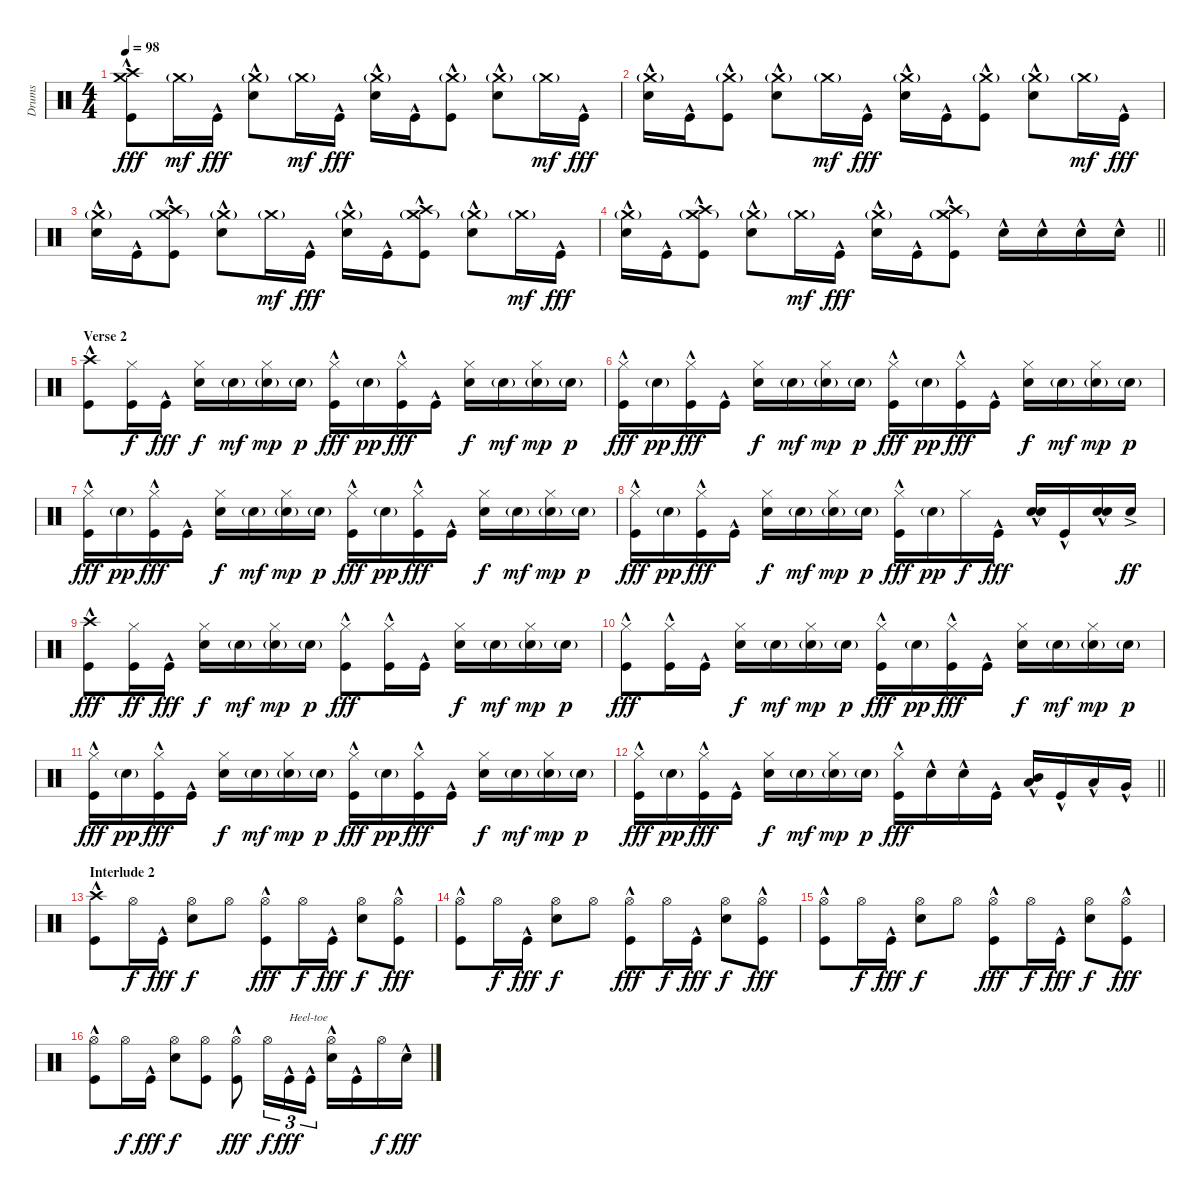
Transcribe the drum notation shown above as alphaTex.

\track ("Drums" "Drums") {instrument percussion}
\staff {score}
\articulation defaults
\ts (4 4)
\tempo 98
\clef neutral
\ks c
("Crash medium (hit)" "Crash high (hit)" "Kick (hit)"{hac}).8{dy fff} "Crash medium (hit)"{g}.16{dy mf} "Kick (hit)"{hac}.16{dy fff} ("Crash medium (hit)"{g} "Snare (hit) 2"{hac}).8 "Crash medium (hit)"{g}.16{dy mf} "Kick (hit)"{hac}.16{dy fff} ("Crash medium (hit)"{g} "Snare (hit) 2"{hac}).16 "Kick (hit)"{hac}.16 ("Crash medium (hit)"{g} "Kick (hit)"{hac}).8 ("Crash medium (hit)"{g} "Snare (hit) 2"{hac}).8 "Crash medium (hit)"{g}.16{dy mf} "Kick (hit)"{hac}.16{dy fff} |
("Crash medium (hit)"{g} "Snare (hit) 2"{hac}).16 "Kick (hit)"{hac}.16 ("Crash medium (hit)"{g} "Kick (hit)"{hac}).8 ("Crash medium (hit)"{g} "Snare (hit) 2"{hac}).8 "Crash medium (hit)"{g}.16{dy mf} "Kick (hit)"{hac}.16{dy fff} ("Crash medium (hit)"{g} "Snare (hit) 2"{hac}).16 "Kick (hit)"{hac}.16 ("Crash medium (hit)"{g} "Kick (hit)"{hac}).8 ("Crash medium (hit)"{g} "Snare (hit) 2"{hac}).8 "Crash medium (hit)"{g}.16{dy mf} "Kick (hit)"{hac}.16{dy fff} |
("Crash medium (hit)"{g} "Snare (hit) 2"{hac}).16 "Kick (hit)"{hac}.16 ("Crash medium (hit)"{g} "Crash high (hit)" "Kick (hit)"{hac}).8 ("Crash medium (hit)"{g} "Snare (hit) 2"{hac}).8 "Crash medium (hit)"{g}.16{dy mf} "Kick (hit)"{hac}.16{dy fff} ("Crash medium (hit)"{g} "Snare (hit) 2"{hac}).16 "Kick (hit)"{hac}.16 ("Crash medium (hit)"{g} "Crash high (hit)" "Kick (hit)"{hac}).8 ("Crash medium (hit)"{g} "Snare (hit) 2"{hac}).8 "Crash medium (hit)"{g}.16{dy mf} "Kick (hit)"{hac}.16{dy fff} |
\barLineRight lightlight
("Crash medium (hit)"{g} "Snare (hit) 2"{hac}).16 "Kick (hit)"{hac}.16 ("Crash medium (hit)"{g} "Crash high (hit)" "Kick (hit)"{hac}).8 ("Crash medium (hit)"{g} "Snare (hit) 2"{hac}).8 "Crash medium (hit)"{g}.16{dy mf} "Kick (hit)"{hac}.16{dy fff} ("Crash medium (hit)"{g} "Snare (hit) 2"{hac}).16 "Kick (hit)"{hac}.16 ("Crash medium (hit)"{g} "Crash high (hit)" "Kick (hit)"{hac}).8 "Snare (hit) 2"{hac}.16 "Snare (hit) 2"{hac}.16 "Snare (hit) 2"{hac}.16 "Snare (hit) 2"{hac}.16 |
\section ("" "Verse 2")
("Crash high (hit)" "Kick (hit)"{hac}).8 ("Hi-Hat (closed)" "Kick (hit)").16{dy f} "Kick (hit)"{hac}.16{dy fff} ("Hi-Hat (closed)" "Snare (hit) 2").16{dy f} "Snare (hit) 2"{g}.16{dy mf} ("Hi-Hat (closed)" "Snare (hit) 2"{g}).16{dy mp} "Snare (hit) 2"{g}.16{dy p} ("Hi-Hat (closed)" "Kick (hit)"{hac}).16{dy fff} "Snare (hit) 2"{g}.16{dy pp} ("Hi-Hat (closed)" "Kick (hit)"{hac}).16{dy fff} "Kick (hit)"{hac}.16 ("Hi-Hat (closed)" "Snare (hit) 2").16{dy f} "Snare (hit) 2"{g}.16{dy mf} ("Hi-Hat (closed)" "Snare (hit) 2"{g}).16{dy mp} "Snare (hit) 2"{g}.16{dy p} |
("Hi-Hat (closed)" "Kick (hit)"{hac}).16{dy fff} "Snare (hit) 2"{g}.16{dy pp} ("Hi-Hat (closed)" "Kick (hit)"{hac}).16{dy fff} "Kick (hit)"{hac}.16 ("Hi-Hat (closed)" "Snare (hit) 2").16{dy f} "Snare (hit) 2"{g}.16{dy mf} ("Hi-Hat (closed)" "Snare (hit) 2"{g}).16{dy mp} "Snare (hit) 2"{g}.16{dy p} ("Hi-Hat (closed)" "Kick (hit)"{hac}).16{dy fff} "Snare (hit) 2"{g}.16{dy pp} ("Hi-Hat (closed)" "Kick (hit)"{hac}).16{dy fff} "Kick (hit)"{hac}.16 ("Hi-Hat (closed)" "Snare (hit) 2").16{dy f} "Snare (hit) 2"{g}.16{dy mf} ("Hi-Hat (closed)" "Snare (hit) 2"{g}).16{dy mp} "Snare (hit) 2"{g}.16{dy p} |
("Hi-Hat (closed)" "Kick (hit)"{hac}).16{dy fff} "Snare (hit) 2"{g}.16{dy pp} ("Hi-Hat (closed)" "Kick (hit)"{hac}).16{dy fff} "Kick (hit)"{hac}.16 ("Hi-Hat (closed)" "Snare (hit) 2").16{dy f} "Snare (hit) 2"{g}.16{dy mf} ("Hi-Hat (closed)" "Snare (hit) 2"{g}).16{dy mp} "Snare (hit) 2"{g}.16{dy p} ("Hi-Hat (closed)" "Kick (hit)"{hac}).16{dy fff} "Snare (hit) 2"{g}.16{dy pp} ("Hi-Hat (closed)" "Kick (hit)"{hac}).16{dy fff} "Kick (hit)"{hac}.16 ("Hi-Hat (closed)" "Snare (hit) 2").16{dy f} "Snare (hit) 2"{g}.16{dy mf} ("Hi-Hat (closed)" "Snare (hit) 2"{g}).16{dy mp} "Snare (hit) 2"{g}.16{dy p} |
("Hi-Hat (closed)" "Kick (hit)"{hac}).16{dy fff} "Snare (hit) 2"{g}.16{dy pp} ("Hi-Hat (closed)" "Kick (hit)"{hac}).16{dy fff} "Kick (hit)"{hac}.16 ("Hi-Hat (closed)" "Snare (hit) 2").16{dy f} "Snare (hit) 2"{g}.16{dy mf} ("Hi-Hat (closed)" "Snare (hit) 2"{g}).16{dy mp} "Snare (hit) 2"{g}.16{dy p} ("Hi-Hat (closed)" "Kick (hit)"{hac}).16{dy fff} "Snare (hit) 2"{g}.16{dy pp} "Hi-Hat (closed)".16{dy f} "Kick (hit)"{hac}.16{dy fff} ("Snare (hit) 2"{hac} "Snare (hit) 2"{hac}).16{bd 60} "Kick (hit)"{hac}.16 ("Snare (hit) 2"{hac} "Snare (hit) 2"{hac}).16{bu 240} "Snare (hit) 2"{ac}.16{dy ff} |
("Crash high (hit)" "Kick (hit)"{hac}).8{dy fff} ("Hi-Hat (closed)" "Kick (hit)").16{dy ff} "Kick (hit)"{hac}.16{dy fff} ("Hi-Hat (closed)" "Snare (hit) 2").16{dy f} "Snare (hit) 2"{g}.16{dy mf} ("Hi-Hat (closed)" "Snare (hit) 2"{g}).16{dy mp} "Snare (hit) 2"{g}.16{dy p} ("Hi-Hat (closed)" "Kick (hit)"{hac}).8{dy fff} ("Hi-Hat (closed)" "Kick (hit)"{hac}).16 "Kick (hit)"{hac}.16 ("Hi-Hat (closed)" "Snare (hit) 2").16{dy f} "Snare (hit) 2"{g}.16{dy mf} ("Hi-Hat (closed)" "Snare (hit) 2"{g}).16{dy mp} "Snare (hit) 2"{g}.16{dy p} |
("Hi-Hat (closed)" "Kick (hit)"{hac}).8{dy fff} ("Hi-Hat (closed)" "Kick (hit)"{hac}).16 "Kick (hit)"{hac}.16 ("Hi-Hat (closed)" "Snare (hit) 2").16{dy f} "Snare (hit) 2"{g}.16{dy mf} ("Hi-Hat (closed)" "Snare (hit) 2"{g}).16{dy mp} "Snare (hit) 2"{g}.16{dy p} ("Hi-Hat (closed)" "Kick (hit)"{hac}).16{dy fff} "Snare (hit) 2"{g}.16{dy pp} ("Hi-Hat (closed)" "Kick (hit)"{hac}).16{dy fff} "Kick (hit)"{hac}.16 ("Hi-Hat (closed)" "Snare (hit) 2").16{dy f} "Snare (hit) 2"{g}.16{dy mf} ("Hi-Hat (closed)" "Snare (hit) 2"{g}).16{dy mp} "Snare (hit) 2"{g}.16{dy p} |
("Hi-Hat (closed)" "Kick (hit)"{hac}).16{dy fff} "Snare (hit) 2"{g}.16{dy pp} ("Hi-Hat (closed)" "Kick (hit)"{hac}).16{dy fff} "Kick (hit)"{hac}.16 ("Hi-Hat (closed)" "Snare (hit) 2").16{dy f} "Snare (hit) 2"{g}.16{dy mf} ("Hi-Hat (closed)" "Snare (hit) 2"{g}).16{dy mp} "Snare (hit) 2"{g}.16{dy p} ("Hi-Hat (closed)" "Kick (hit)"{hac}).16{dy fff} "Snare (hit) 2"{g}.16{dy pp} ("Hi-Hat (closed)" "Kick (hit)"{hac}).16{dy fff} "Kick (hit)"{hac}.16 ("Hi-Hat (closed)" "Snare (hit) 2").16{dy f} "Snare (hit) 2"{g}.16{dy mf} ("Hi-Hat (closed)" "Snare (hit) 2"{g}).16{dy mp} "Snare (hit) 2"{g}.16{dy p} |
\barLineRight lightlight
("Hi-Hat (closed)" "Kick (hit)"{hac}).16{dy fff} "Snare (hit) 2"{g}.16{dy pp} ("Hi-Hat (closed)" "Kick (hit)"{hac}).16{dy fff} "Kick (hit)"{hac}.16 ("Hi-Hat (closed)" "Snare (hit) 2").16{dy f} "Snare (hit) 2"{g}.16{dy mf} ("Hi-Hat (closed)" "Snare (hit) 2"{g}).16{dy mp} "Snare (hit) 2"{g}.16{dy p} ("Hi-Hat (closed)" "Kick (hit)"{hac}).16{dy fff} "Snare (hit) 2"{hac}.16 "Snare (hit) 2"{hac}.16 "Kick (hit)"{hac}.16 ("Mid Tom (hit)"{hac} "Low Tom (hit)"{hac}).16{bd 240} "Kick (hit)"{hac}.16 "Low Tom (hit)"{hac}.16 "Very Low Tom (hit)"{hac}.16 |
\section ("" "Interlude 2")
("Crash high (hit)" "Kick (hit)"{hac}).8 "Hi-Hat (open)".16{dy f} "Kick (hit)"{hac}.16{dy fff} ("Hi-Hat (open)" "Snare (hit) 2").8{dy f} "Hi-Hat (open)".8 ("Hi-Hat (open)" "Kick (hit)"{hac}).8{dy fff} "Hi-Hat (open)".16{dy f} "Kick (hit)"{hac}.16{dy fff} ("Hi-Hat (open)" "Snare (hit) 2").8{dy f} ("Hi-Hat (open)" "Kick (hit)"{hac}).8{dy fff} |
("Hi-Hat (open)" "Kick (hit)"{hac}).8 "Hi-Hat (open)".16{dy f} "Kick (hit)"{hac}.16{dy fff} ("Hi-Hat (open)" "Snare (hit) 2").8{dy f} "Hi-Hat (open)".8 ("Hi-Hat (open)" "Kick (hit)"{hac}).8{dy fff} "Hi-Hat (open)".16{dy f} "Kick (hit)"{hac}.16{dy fff} ("Hi-Hat (open)" "Snare (hit) 2").8{dy f} ("Hi-Hat (open)" "Kick (hit)"{hac}).8{dy fff} |
("Hi-Hat (open)" "Kick (hit)"{hac}).8 "Hi-Hat (open)".16{dy f} "Kick (hit)"{hac}.16{dy fff} ("Hi-Hat (open)" "Snare (hit) 2").8{dy f} "Hi-Hat (open)".8 ("Hi-Hat (open)" "Kick (hit)"{hac}).8{dy fff} "Hi-Hat (open)".16{dy f} "Kick (hit)"{hac}.16{dy fff} ("Hi-Hat (open)" "Snare (hit) 2").8{dy f} ("Hi-Hat (open)" "Kick (hit)"{hac}).8{dy fff} |
("Hi-Hat (open)" "Kick (hit)"{hac}).8 "Hi-Hat (open)".16{dy f} "Kick (hit)"{hac}.16{dy fff} ("Hi-Hat (open)" "Snare (hit) 2").8{dy f} ("Hi-Hat (open)" "Kick (hit)").8 ("Hi-Hat (open)" "Kick (hit)"{hac}).8{dy fff} "Hi-Hat (open)".16{tu (3 2) dy f} "Kick (hit)"{hac}.16{tu (3 2) txt "Heel-toe" dy fff} "Kick (hit)"{hac}.16{tu (3 2)} ("Hi-Hat (open)" "Snare (hit) 2"{hac}).16 "Kick (hit)"{hac}.16 "Hi-Hat (open)".16{dy f} "Snare (hit) 2"{hac}.16{dy fff}
